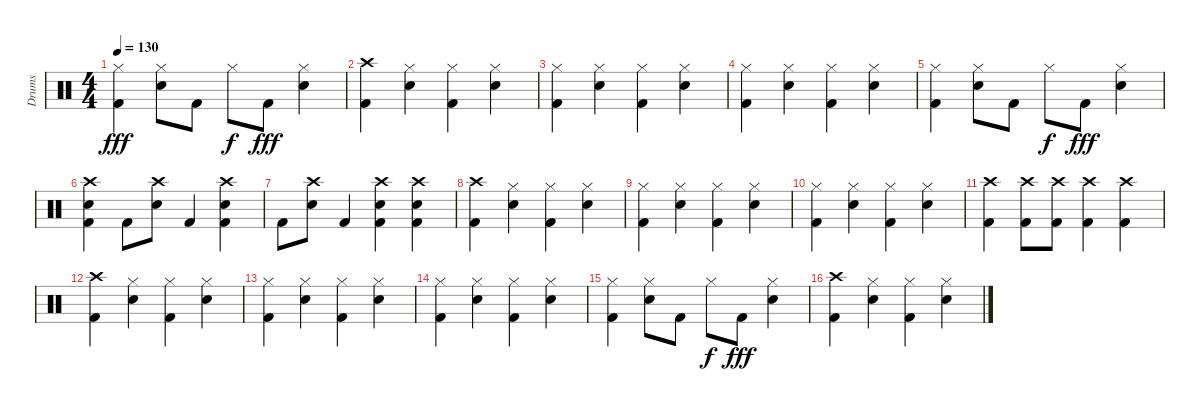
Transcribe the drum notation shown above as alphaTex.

\track ("Drums" "Drums") {instrument percussion}
\staff {score}
\articulation defaults
\ts (4 4)
\tempo 130
\clef neutral
\ks c
("Kick (hit) 2" "Hi-Hat (closed)").4{dy fff} ("Hi-Hat (closed)" "Snare (hit) 2").8 "Kick (hit) 2".8 "Hi-Hat (closed)".8{dy f} "Kick (hit) 2".8{dy fff} ("Hi-Hat (closed)" "Snare (hit) 2").4 |
("Crash high (hit)" "Kick (hit) 2").4 ("Hi-Hat (closed)" "Snare (hit) 2").4 ("Kick (hit) 2" "Hi-Hat (closed)").4 ("Hi-Hat (closed)" "Snare (hit) 2").4 |
("Kick (hit) 2" "Hi-Hat (closed)").4 ("Hi-Hat (closed)" "Snare (hit) 2").4 ("Kick (hit) 2" "Hi-Hat (closed)").4 ("Hi-Hat (closed)" "Snare (hit) 2").4 |
("Kick (hit) 2" "Hi-Hat (closed)").4 ("Hi-Hat (closed)" "Snare (hit) 2").4 ("Kick (hit) 2" "Hi-Hat (closed)").4 ("Hi-Hat (closed)" "Snare (hit) 2").4 |
("Kick (hit) 2" "Hi-Hat (closed)").4 ("Hi-Hat (closed)" "Snare (hit) 2").8 "Kick (hit) 2".8 "Hi-Hat (closed)".8{dy f} "Kick (hit) 2".8{dy fff} ("Hi-Hat (closed)" "Snare (hit) 2").4 |
("Crash high (hit)" "Kick (hit) 2" "Snare (hit) 2").4 "Kick (hit) 2".8 ("Crash high (hit)" "Snare (hit) 2").8 "Kick (hit) 2".4 ("Crash high (hit)" "Kick (hit) 2" "Snare (hit) 2").4 |
"Kick (hit) 2".8 ("Crash high (hit)" "Snare (hit) 2").8 "Kick (hit) 2".4 ("Crash high (hit)" "Kick (hit) 2" "Snare (hit) 2").4 ("Crash high (hit)" "Kick (hit) 2" "Snare (hit) 2").4 |
("Crash high (hit)" "Kick (hit) 2").4 ("Hi-Hat (closed)" "Snare (hit) 2").4 ("Kick (hit) 2" "Hi-Hat (closed)").4 ("Hi-Hat (closed)" "Snare (hit) 2").4 |
("Kick (hit) 2" "Hi-Hat (closed)").4 ("Hi-Hat (closed)" "Snare (hit) 2").4 ("Kick (hit) 2" "Hi-Hat (closed)").4 ("Hi-Hat (closed)" "Snare (hit) 2").4 |
("Kick (hit) 2" "Hi-Hat (closed)").4 ("Hi-Hat (closed)" "Snare (hit) 2").4 ("Kick (hit) 2" "Hi-Hat (closed)").4 ("Hi-Hat (closed)" "Snare (hit) 2").4 |
("Crash high (hit)" "Kick (hit) 2").4 ("Crash high (hit)" "Kick (hit) 2").8 ("Crash high (hit)" "Kick (hit) 2").8 ("Crash high (hit)" "Kick (hit) 2").4 ("Crash high (hit)" "Kick (hit) 2").4 |
("Crash high (hit)" "Kick (hit) 2").4 ("Hi-Hat (closed)" "Snare (hit) 2").4 ("Kick (hit) 2" "Hi-Hat (closed)").4 ("Hi-Hat (closed)" "Snare (hit) 2").4 |
("Kick (hit) 2" "Hi-Hat (closed)").4 ("Hi-Hat (closed)" "Snare (hit) 2").4 ("Kick (hit) 2" "Hi-Hat (closed)").4 ("Hi-Hat (closed)" "Snare (hit) 2").4 |
("Kick (hit) 2" "Hi-Hat (closed)").4 ("Hi-Hat (closed)" "Snare (hit) 2").4 ("Kick (hit) 2" "Hi-Hat (closed)").4 ("Hi-Hat (closed)" "Snare (hit) 2").4 |
("Kick (hit) 2" "Hi-Hat (closed)").4 ("Hi-Hat (closed)" "Snare (hit) 2").8 "Kick (hit) 2".8 "Hi-Hat (closed)".8{dy f} "Kick (hit) 2".8{dy fff} ("Hi-Hat (closed)" "Snare (hit) 2").4 |
("Crash high (hit)" "Kick (hit) 2").4 ("Hi-Hat (closed)" "Snare (hit) 2").4 ("Kick (hit) 2" "Hi-Hat (closed)").4 ("Hi-Hat (closed)" "Snare (hit) 2").4
